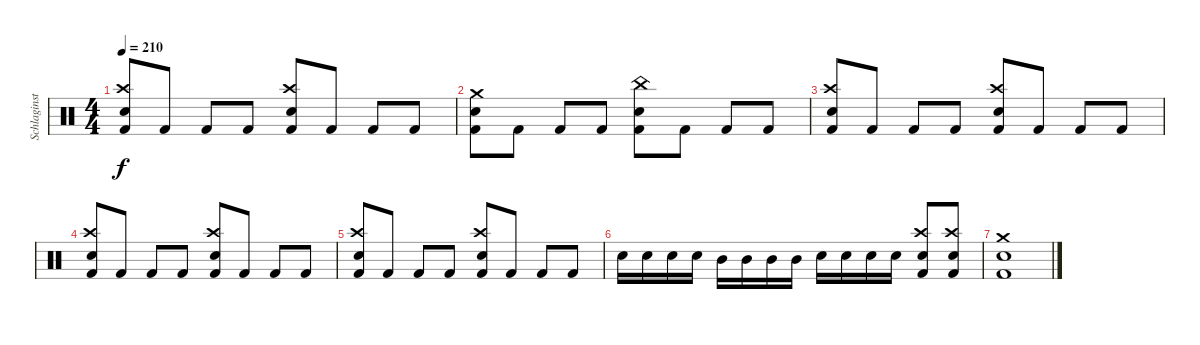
\track ("Schlaginstrumente - Auswahl" "Schlaginst") {instrument percussion}
\staff {score}
\articulation defaults
\ts (4 4)
\tempo 210
\clef neutral
\ks c
("Electric Snare (hit)" "Crash high (hit)" "Kick (hit) 2").8{dy f} "Kick (hit) 2".8 "Kick (hit) 2".8 "Kick (hit) 2".8 ("Electric Snare (hit)" "Crash high (hit)" "Kick (hit) 2").8 "Kick (hit) 2".8 "Kick (hit) 2".8 "Kick (hit) 2".8 |
("Electric Snare (hit)" "Crash medium (hit)" "Kick (hit) 2").8 "Kick (hit) 2".8 "Kick (hit) 2".8 "Kick (hit) 2".8 ("Electric Snare (hit)" "China (hit)" "Kick (hit) 2").8 "Kick (hit) 2".8 "Kick (hit) 2".8 "Kick (hit) 2".8 |
("Electric Snare (hit)" "Crash high (hit)" "Kick (hit) 2").8 "Kick (hit) 2".8 "Kick (hit) 2".8 "Kick (hit) 2".8 ("Electric Snare (hit)" "Crash high (hit)" "Kick (hit) 2").8 "Kick (hit) 2".8 "Kick (hit) 2".8 "Kick (hit) 2".8 |
("Electric Snare (hit)" "Crash high (hit)" "Kick (hit) 2").8 "Kick (hit) 2".8 "Kick (hit) 2".8 "Kick (hit) 2".8 ("Electric Snare (hit)" "Crash high (hit)" "Kick (hit) 2").8 "Kick (hit) 2".8 "Kick (hit) 2".8 "Kick (hit) 2".8 |
("Electric Snare (hit)" "Crash high (hit)" "Kick (hit) 2").8 "Kick (hit) 2".8 "Kick (hit) 2".8 "Kick (hit) 2".8 ("Electric Snare (hit)" "Crash high (hit)" "Kick (hit) 2").8 "Kick (hit) 2".8 "Kick (hit) 2".8 "Kick (hit) 2".8 |
"Electric Snare (hit)".16 "Electric Snare (hit)".16 "Electric Snare (hit)".16 "Electric Snare (hit)".16 "Mid Tom (hit)".16 "Mid Tom (hit)".16 "Mid Tom (hit)".16 "Mid Tom (hit)".16 "Electric Snare (hit)".16 "Electric Snare (hit)".16 "Electric Snare (hit)".16 "Electric Snare (hit)".16 ("Electric Snare (hit)" "Crash high (hit)" "Kick (hit) 2").8 ("Electric Snare (hit)" "Crash high (hit)" "Kick (hit) 2").8 |
("Electric Snare (hit)" "Crash medium (hit)" "Kick (hit) 2").1
